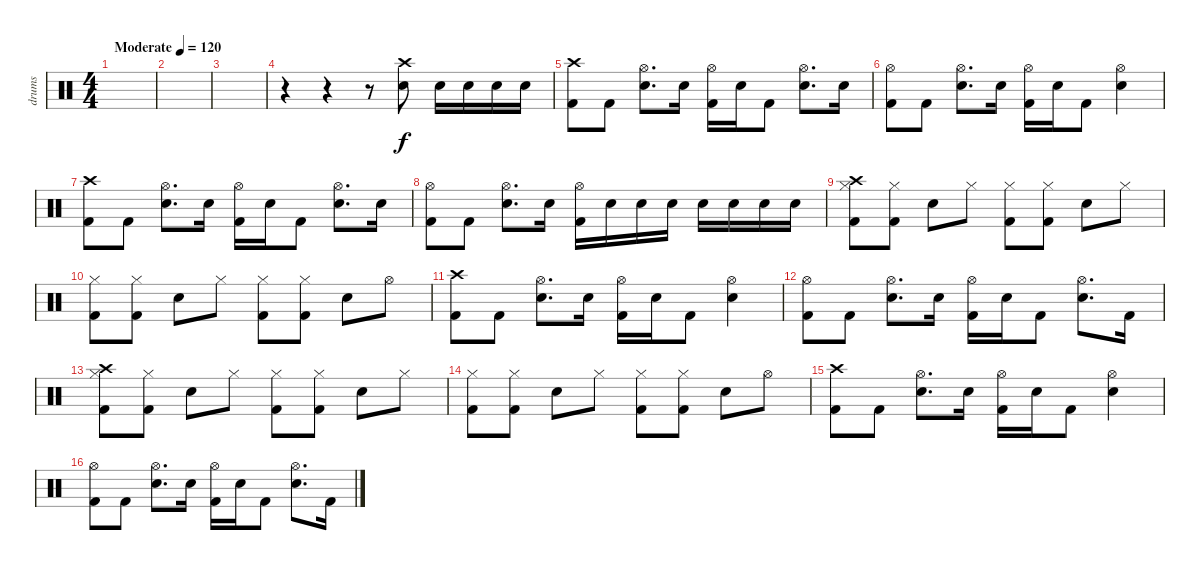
\track ("drums" "drums") {instrument percussion}
\staff {score}
\articulation defaults
\ts (4 4)
\tempo (120 "Moderate")
\clef neutral
\ks c
|
|
|
r.4 r.4 r.8 ("Snare (hit) 2" "Crash high (hit)").8 "Snare (hit) 2".16 "Snare (hit) 2".16 "Snare (hit) 2".16 "Snare (hit) 2".16 |
("Crash high (hit)" "Kick (hit) 2").8 "Kick (hit) 2".8 ("Hi-Hat (open)" "Snare (hit) 2").8{d} "Snare (hit) 2".16 ("Hi-Hat (open)" "Kick (hit) 2").16 "Snare (hit) 2".16 "Kick (hit) 2".8 ("Hi-Hat (open)" "Snare (hit) 2").8{d} "Snare (hit) 2".16 |
("Hi-Hat (open)" "Kick (hit) 2").8 "Kick (hit) 2".8 ("Hi-Hat (open)" "Snare (hit) 2").8{d} "Snare (hit) 2".16 ("Hi-Hat (open)" "Kick (hit) 2").16 "Snare (hit) 2".16 "Kick (hit) 2".8 ("Hi-Hat (open)" "Snare (hit) 2").4 |
("Crash high (hit)" "Kick (hit) 2").8 "Kick (hit) 2".8 ("Hi-Hat (open)" "Snare (hit) 2").8{d} "Snare (hit) 2".16 ("Hi-Hat (open)" "Kick (hit) 2").16 "Snare (hit) 2".16 "Kick (hit) 2".8 ("Hi-Hat (open)" "Snare (hit) 2").8{d} "Snare (hit) 2".16 |
("Hi-Hat (open)" "Kick (hit) 2").8 "Kick (hit) 2".8 ("Hi-Hat (open)" "Snare (hit) 2").8{d} "Snare (hit) 2".16 ("Hi-Hat (open)" "Kick (hit) 2").16 "Snare (hit) 2".16 "Snare (hit) 2".16 "Snare (hit) 2".16 "Snare (hit) 2".16 "Snare (hit) 2".16 "Snare (hit) 2".16 "Snare (hit) 2".16 |
("Crash high (hit)" "Hi-Hat (closed)" "Kick (hit) 2").8 ("Hi-Hat (closed)" "Kick (hit) 2").8 "Snare (hit) 2".8 "Hi-Hat (closed)".8 ("Hi-Hat (closed)" "Kick (hit) 2").8 ("Hi-Hat (closed)" "Kick (hit) 2").8 "Snare (hit) 2".8 "Hi-Hat (closed)".8 |
("Hi-Hat (closed)" "Kick (hit) 2").8 ("Hi-Hat (closed)" "Kick (hit) 2").8 "Snare (hit) 2".8 "Hi-Hat (closed)".8 ("Hi-Hat (closed)" "Kick (hit) 2").8 ("Hi-Hat (closed)" "Kick (hit) 2").8 "Snare (hit) 2".8 "Hi-Hat (open)".8 |
("Crash high (hit)" "Kick (hit) 2").8 "Kick (hit) 2".8 ("Hi-Hat (open)" "Snare (hit) 2").8{d} "Snare (hit) 2".16 ("Hi-Hat (open)" "Kick (hit) 2").16 "Snare (hit) 2".16 "Kick (hit) 2".8 ("Hi-Hat (open)" "Snare (hit) 2").4 |
("Hi-Hat (open)" "Kick (hit) 2").8 "Kick (hit) 2".8 ("Hi-Hat (open)" "Snare (hit) 2").8{d} "Snare (hit) 2".16 ("Hi-Hat (open)" "Kick (hit) 2").16 "Snare (hit) 2".16 "Kick (hit) 2".8 ("Hi-Hat (open)" "Snare (hit) 2").8{d} "Kick (hit) 2".16 |
("Crash high (hit)" "Hi-Hat (closed)" "Kick (hit) 2").8 ("Hi-Hat (closed)" "Kick (hit) 2").8 "Snare (hit) 2".8 "Hi-Hat (closed)".8 ("Hi-Hat (closed)" "Kick (hit) 2").8 ("Hi-Hat (closed)" "Kick (hit) 2").8 "Snare (hit) 2".8 "Hi-Hat (closed)".8 |
("Hi-Hat (closed)" "Kick (hit) 2").8 ("Hi-Hat (closed)" "Kick (hit) 2").8 "Snare (hit) 2".8 "Hi-Hat (closed)".8 ("Hi-Hat (closed)" "Kick (hit) 2").8 ("Hi-Hat (closed)" "Kick (hit) 2").8 "Snare (hit) 2".8 "Hi-Hat (open)".8 |
("Crash high (hit)" "Kick (hit) 2").8 "Kick (hit) 2".8 ("Hi-Hat (open)" "Snare (hit) 2").8{d} "Snare (hit) 2".16 ("Hi-Hat (open)" "Kick (hit) 2").16 "Snare (hit) 2".16 "Kick (hit) 2".8 ("Hi-Hat (open)" "Snare (hit) 2").4 |
("Hi-Hat (open)" "Kick (hit) 2").8 "Kick (hit) 2".8 ("Hi-Hat (open)" "Snare (hit) 2").8{d} "Snare (hit) 2".16 ("Hi-Hat (open)" "Kick (hit) 2").16 "Snare (hit) 2".16 "Kick (hit) 2".8 ("Hi-Hat (open)" "Snare (hit) 2").8{d} "Kick (hit) 2".16
